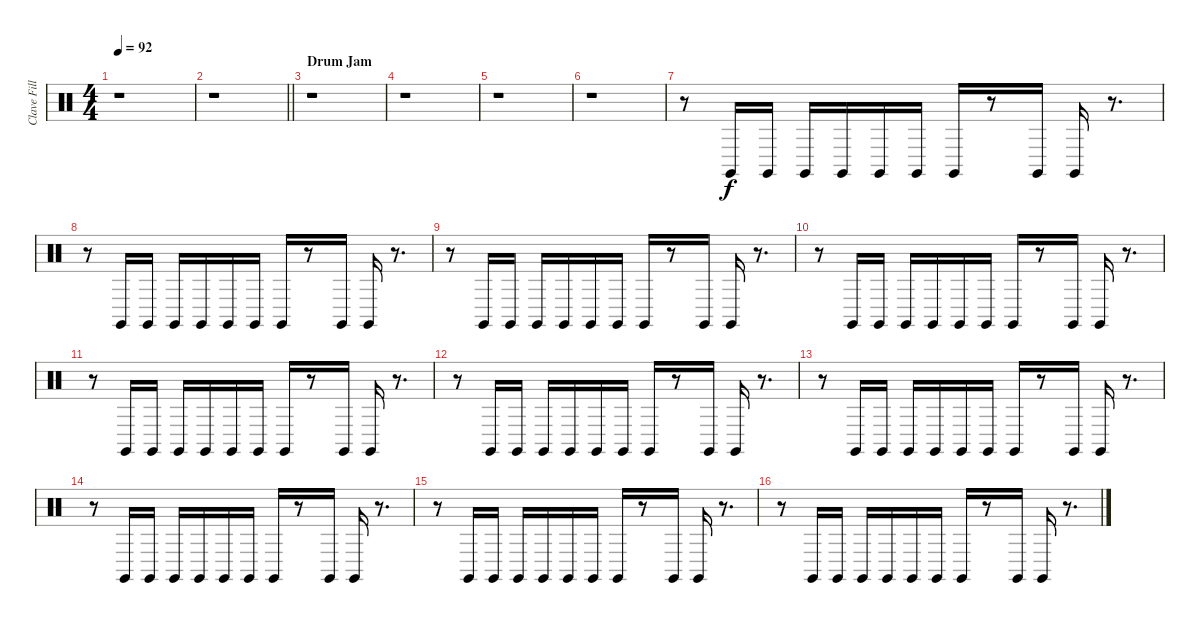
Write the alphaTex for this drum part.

\track ("Clave Fills" "Clave Fill") {instrument percussion}
\staff {score}
\articulation defaults
\ts (4 4)
\tempo 92
\clef neutral
\ks c
r.1{dy f} |
\barLineRight lightlight
r.1 |
\section ("" "Drum Jam")
r.1 |
r.1 |
r.1 |
r.1 |
r.8 "Claves (hit)".16 "Claves (hit)".16 "Claves (hit)".16 "Claves (hit)".16 "Claves (hit)".16 "Claves (hit)".16 "Claves (hit)".16 r.8 "Claves (hit)".16 "Claves (hit)".16 r.8{d} |
r.8 "Claves (hit)".16 "Claves (hit)".16 "Claves (hit)".16 "Claves (hit)".16 "Claves (hit)".16 "Claves (hit)".16 "Claves (hit)".16 r.8 "Claves (hit)".16 "Claves (hit)".16 r.8{d} |
r.8 "Claves (hit)".16 "Claves (hit)".16 "Claves (hit)".16 "Claves (hit)".16 "Claves (hit)".16 "Claves (hit)".16 "Claves (hit)".16 r.8 "Claves (hit)".16 "Claves (hit)".16 r.8{d} |
r.8 "Claves (hit)".16 "Claves (hit)".16 "Claves (hit)".16 "Claves (hit)".16 "Claves (hit)".16 "Claves (hit)".16 "Claves (hit)".16 r.8 "Claves (hit)".16 "Claves (hit)".16 r.8{d} |
r.8 "Claves (hit)".16 "Claves (hit)".16 "Claves (hit)".16 "Claves (hit)".16 "Claves (hit)".16 "Claves (hit)".16 "Claves (hit)".16 r.8 "Claves (hit)".16 "Claves (hit)".16 r.8{d} |
r.8 "Claves (hit)".16 "Claves (hit)".16 "Claves (hit)".16 "Claves (hit)".16 "Claves (hit)".16 "Claves (hit)".16 "Claves (hit)".16 r.8 "Claves (hit)".16 "Claves (hit)".16 r.8{d} |
r.8 "Claves (hit)".16 "Claves (hit)".16 "Claves (hit)".16 "Claves (hit)".16 "Claves (hit)".16 "Claves (hit)".16 "Claves (hit)".16 r.8 "Claves (hit)".16 "Claves (hit)".16 r.8{d} |
r.8{volume 16} "Claves (hit)".16 "Claves (hit)".16 "Claves (hit)".16 "Claves (hit)".16 "Claves (hit)".16 "Claves (hit)".16 "Claves (hit)".16 r.8 "Claves (hit)".16 "Claves (hit)".16 r.8{d} |
r.8 "Claves (hit)".16 "Claves (hit)".16 "Claves (hit)".16 "Claves (hit)".16 "Claves (hit)".16 "Claves (hit)".16 "Claves (hit)".16 r.8 "Claves (hit)".16 "Claves (hit)".16 r.8{d} |
r.8 "Claves (hit)".16 "Claves (hit)".16 "Claves (hit)".16 "Claves (hit)".16 "Claves (hit)".16 "Claves (hit)".16 "Claves (hit)".16 r.8 "Claves (hit)".16 "Claves (hit)".16 r.8{d}
